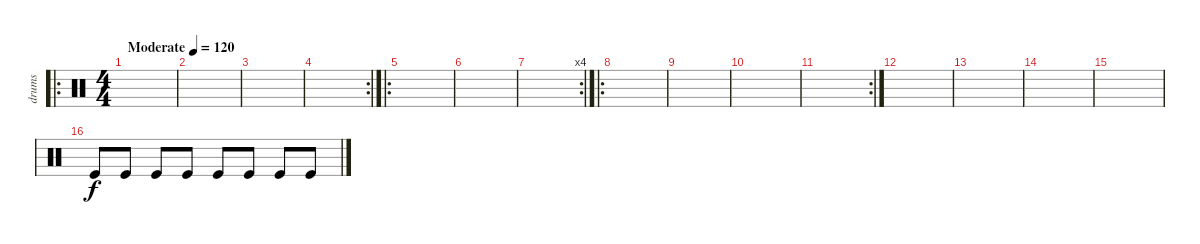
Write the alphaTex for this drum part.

\track ("drums" "drums") {instrument percussion}
\staff {score}
\articulation defaults
\ro
\ts (4 4)
\tempo (120 "Moderate")
\clef neutral
\ks c
|
|
|
\rc 2
|
\ro
|
|
\rc 4
|
\ro
|
|
|
\rc 2
|
|
|
|
|
"Kick (hit)".8 "Kick (hit)".8 "Kick (hit)".8 "Kick (hit)".8 "Kick (hit)".8 "Kick (hit)".8 "Kick (hit)".8 "Kick (hit)".8
